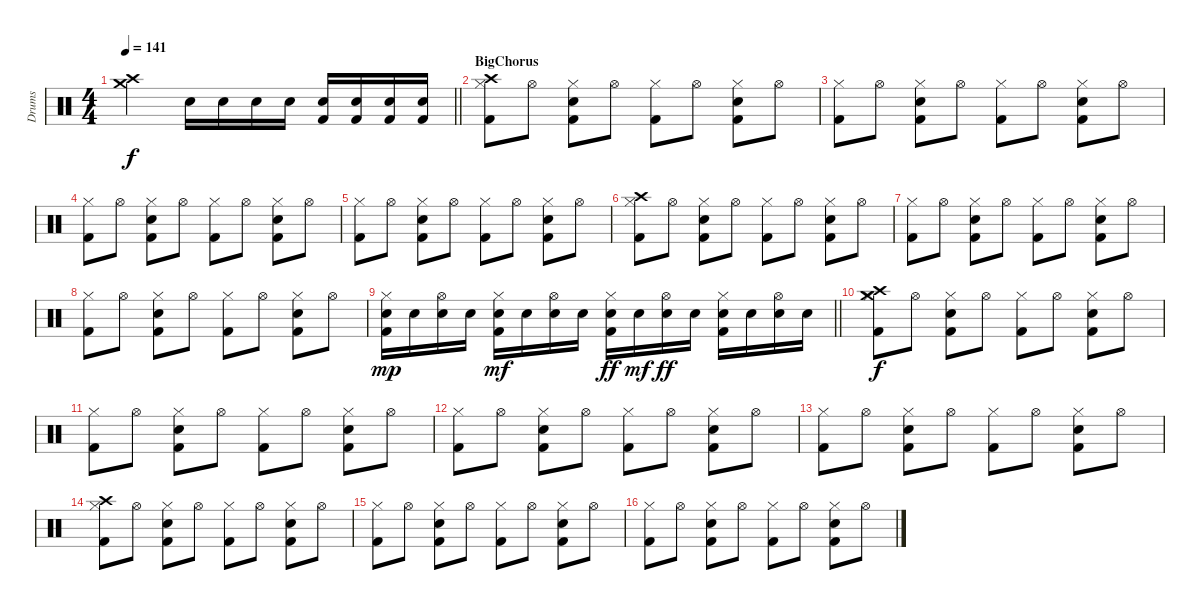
\track ("Drums" "Drums") {instrument percussion}
\staff {score}
\articulation defaults
\ts (4 4)
\tempo 141
\clef neutral
\barLineRight lightlight
\ks c
("Crash high (hit)" "Crash medium (hit)").2{dy f} "Snare (hit) 2".16 "Snare (hit) 2".16 "Snare (hit) 2".16 "Snare (hit) 2".16 ("Snare (hit) 2" "Kick (hit) 2").16 ("Snare (hit) 2" "Kick (hit) 2").16 ("Snare (hit) 2" "Kick (hit) 2").16 ("Snare (hit) 2" "Kick (hit) 2").16 |
\section ("" "BigChorus")
("Hi-Hat (closed)" "Crash high (hit)" "Kick (hit) 2").8 "Hi-Hat (open)".8 ("Hi-Hat (closed)" "Snare (hit) 2" "Kick (hit) 2").8 "Hi-Hat (open)".8 ("Hi-Hat (closed)" "Kick (hit) 2").8 "Hi-Hat (open)".8 ("Hi-Hat (closed)" "Snare (hit) 2" "Kick (hit) 2").8 "Hi-Hat (open)".8 |
("Hi-Hat (closed)" "Kick (hit) 2").8 "Hi-Hat (open)".8 ("Hi-Hat (closed)" "Snare (hit) 2" "Kick (hit) 2").8 "Hi-Hat (open)".8 ("Hi-Hat (closed)" "Kick (hit) 2").8 "Hi-Hat (open)".8 ("Hi-Hat (closed)" "Snare (hit) 2" "Kick (hit) 2").8 "Hi-Hat (open)".8 |
("Hi-Hat (closed)" "Kick (hit) 2").8 "Hi-Hat (open)".8 ("Hi-Hat (closed)" "Snare (hit) 2" "Kick (hit) 2").8 "Hi-Hat (open)".8 ("Hi-Hat (closed)" "Kick (hit) 2").8 "Hi-Hat (open)".8 ("Hi-Hat (closed)" "Snare (hit) 2" "Kick (hit) 2").8 "Hi-Hat (open)".8 |
("Hi-Hat (closed)" "Kick (hit) 2").8 "Hi-Hat (open)".8 ("Hi-Hat (closed)" "Snare (hit) 2" "Kick (hit) 2").8 "Hi-Hat (open)".8 ("Hi-Hat (closed)" "Kick (hit) 2").8 "Hi-Hat (open)".8 ("Hi-Hat (closed)" "Snare (hit) 2" "Kick (hit) 2").8 "Hi-Hat (open)".8 |
("Hi-Hat (closed)" "Crash high (hit)" "Kick (hit) 2").8 "Hi-Hat (open)".8 ("Hi-Hat (closed)" "Snare (hit) 2" "Kick (hit) 2").8 "Hi-Hat (open)".8 ("Hi-Hat (closed)" "Kick (hit) 2").8 "Hi-Hat (open)".8 ("Hi-Hat (closed)" "Snare (hit) 2" "Kick (hit) 2").8 "Hi-Hat (open)".8 |
("Hi-Hat (closed)" "Kick (hit) 2").8 "Hi-Hat (open)".8 ("Hi-Hat (closed)" "Snare (hit) 2" "Kick (hit) 2").8 "Hi-Hat (open)".8 ("Hi-Hat (closed)" "Kick (hit) 2").8 "Hi-Hat (open)".8 ("Hi-Hat (closed)" "Snare (hit) 2" "Kick (hit) 2").8 "Hi-Hat (open)".8 |
("Hi-Hat (closed)" "Kick (hit) 2").8 "Hi-Hat (open)".8 ("Hi-Hat (closed)" "Snare (hit) 2" "Kick (hit) 2").8 "Hi-Hat (open)".8 ("Hi-Hat (closed)" "Kick (hit) 2").8 "Hi-Hat (open)".8 ("Hi-Hat (closed)" "Snare (hit) 2" "Kick (hit) 2").8 "Hi-Hat (open)".8 |
\barLineRight lightlight
("Hi-Hat (closed)" "Snare (hit) 2" "Kick (hit) 2").16{dy mp} "Snare (hit) 2".16 ("Hi-Hat (open)" "Snare (hit) 2").16 "Snare (hit) 2".16 ("Hi-Hat (closed)" "Snare (hit) 2" "Kick (hit) 2").16{dy mf} "Snare (hit) 2".16 ("Hi-Hat (open)" "Snare (hit) 2").16 "Snare (hit) 2".16 ("Hi-Hat (closed)" "Snare (hit) 2" "Kick (hit) 2").16{dy ff} "Snare (hit) 2".16{dy mf} ("Hi-Hat (open)" "Snare (hit) 2").16{dy ff} "Snare (hit) 2".16 ("Hi-Hat (closed)" "Snare (hit) 2" "Kick (hit) 2").16 "Snare (hit) 2".16 ("Hi-Hat (open)" "Snare (hit) 2").16 "Snare (hit) 2".16 |
("Hi-Hat (closed)" "Crash high (hit)" "Crash medium (hit)" "Kick (hit) 2").8{dy f} "Hi-Hat (open)".8 ("Hi-Hat (closed)" "Snare (hit) 2" "Kick (hit) 2").8 "Hi-Hat (open)".8 ("Hi-Hat (closed)" "Kick (hit) 2").8 "Hi-Hat (open)".8 ("Hi-Hat (closed)" "Snare (hit) 2" "Kick (hit) 2").8 "Hi-Hat (open)".8 |
("Hi-Hat (closed)" "Kick (hit) 2").8 "Hi-Hat (open)".8 ("Hi-Hat (closed)" "Snare (hit) 2" "Kick (hit) 2").8 "Hi-Hat (open)".8 ("Hi-Hat (closed)" "Kick (hit) 2").8 "Hi-Hat (open)".8 ("Hi-Hat (closed)" "Snare (hit) 2" "Kick (hit) 2").8 "Hi-Hat (open)".8 |
("Hi-Hat (closed)" "Kick (hit) 2").8 "Hi-Hat (open)".8 ("Hi-Hat (closed)" "Snare (hit) 2" "Kick (hit) 2").8 "Hi-Hat (open)".8 ("Hi-Hat (closed)" "Kick (hit) 2").8 "Hi-Hat (open)".8 ("Hi-Hat (closed)" "Snare (hit) 2" "Kick (hit) 2").8 "Hi-Hat (open)".8 |
("Hi-Hat (closed)" "Kick (hit) 2").8 "Hi-Hat (open)".8 ("Hi-Hat (closed)" "Snare (hit) 2" "Kick (hit) 2").8 "Hi-Hat (open)".8 ("Hi-Hat (closed)" "Kick (hit) 2").8 "Hi-Hat (open)".8 ("Hi-Hat (closed)" "Snare (hit) 2" "Kick (hit) 2").8 "Hi-Hat (open)".8 |
("Hi-Hat (closed)" "Crash high (hit)" "Kick (hit) 2").8 "Hi-Hat (open)".8 ("Hi-Hat (closed)" "Snare (hit) 2" "Kick (hit) 2").8 "Hi-Hat (open)".8 ("Hi-Hat (closed)" "Kick (hit) 2").8 "Hi-Hat (open)".8 ("Hi-Hat (closed)" "Snare (hit) 2" "Kick (hit) 2").8 "Hi-Hat (open)".8 |
("Hi-Hat (closed)" "Kick (hit) 2").8 "Hi-Hat (open)".8 ("Hi-Hat (closed)" "Snare (hit) 2" "Kick (hit) 2").8 "Hi-Hat (open)".8 ("Hi-Hat (closed)" "Kick (hit) 2").8 "Hi-Hat (open)".8 ("Hi-Hat (closed)" "Snare (hit) 2" "Kick (hit) 2").8 "Hi-Hat (open)".8 |
("Hi-Hat (closed)" "Kick (hit) 2").8 "Hi-Hat (open)".8 ("Hi-Hat (closed)" "Snare (hit) 2" "Kick (hit) 2").8 "Hi-Hat (open)".8 ("Hi-Hat (closed)" "Kick (hit) 2").8 "Hi-Hat (open)".8 ("Hi-Hat (closed)" "Snare (hit) 2" "Kick (hit) 2").8 "Hi-Hat (open)".8
